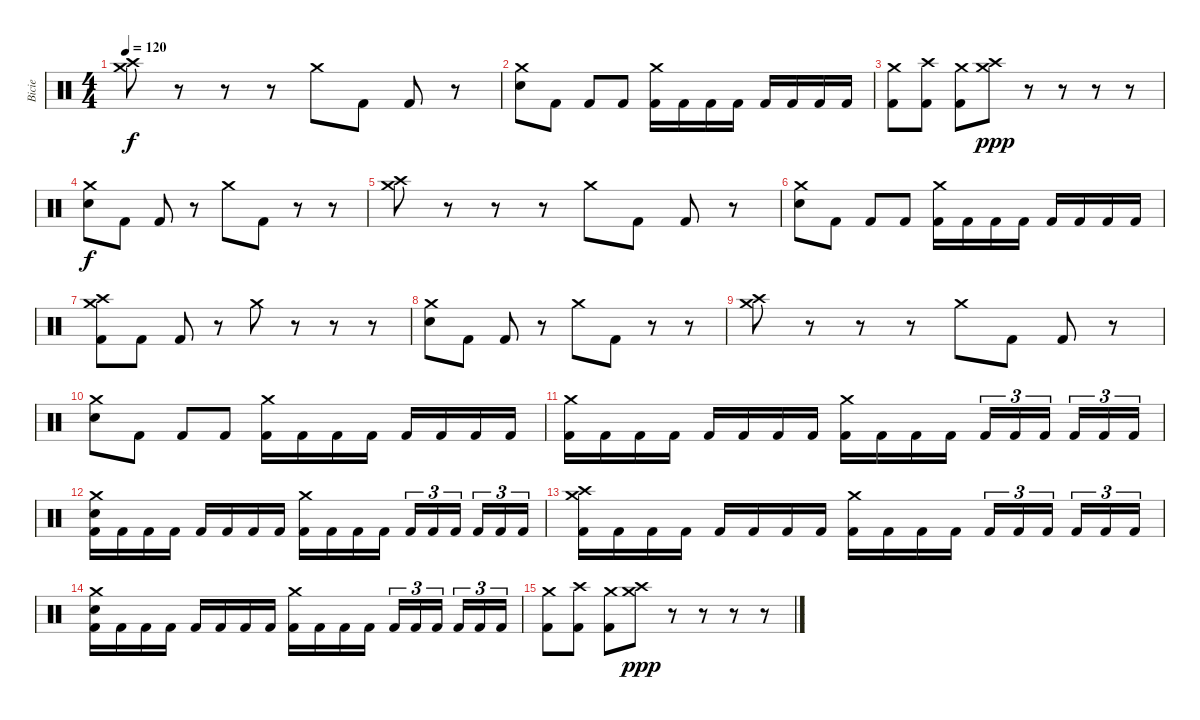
\track ("Bicie" "Bicie") {instrument percussion}
\staff {score}
\articulation defaults
\ts (4 4)
\tempo 120
\clef neutral
\ks c
("Crash medium (hit)" "Crash high (hit)").8{dy f} r.8 r.8 r.8 "Crash medium (hit)".8 "Kick (hit) 2".8 "Kick (hit) 2".8 r.8 |
("Crash medium (hit)" "Snare (hit) 2").8 "Kick (hit) 2".8 "Kick (hit) 2".8 "Kick (hit) 2".8 ("Crash medium (hit)" "Kick (hit) 2").16 "Kick (hit) 2".16 "Kick (hit) 2".16 "Kick (hit) 2".16 "Kick (hit) 2".16 "Kick (hit) 2".16 "Kick (hit) 2".16 "Kick (hit) 2".16 |
("Crash medium (hit)" "Kick (hit) 2").8 ("Crash high (hit)" "Kick (hit) 2").8 ("Crash medium (hit)" "Kick (hit) 2").8 ("Crash medium (hit)" "Crash high (hit)").8{dy ppp} r.8 r.8 r.8 r.8 |
("Crash medium (hit)" "Snare (hit) 2").8{dy f} "Kick (hit) 2".8 "Kick (hit) 2".8 r.8 "Crash medium (hit)".8 "Kick (hit) 2".8 r.8 r.8 |
("Crash medium (hit)" "Crash high (hit)").8 r.8 r.8 r.8 "Crash medium (hit)".8 "Kick (hit) 2".8 "Kick (hit) 2".8 r.8 |
("Crash medium (hit)" "Snare (hit) 2").8 "Kick (hit) 2".8 "Kick (hit) 2".8 "Kick (hit) 2".8 ("Crash medium (hit)" "Kick (hit) 2").16 "Kick (hit) 2".16 "Kick (hit) 2".16 "Kick (hit) 2".16 "Kick (hit) 2".16 "Kick (hit) 2".16 "Kick (hit) 2".16 "Kick (hit) 2".16 |
("Crash high (hit)" "Crash medium (hit)" "Kick (hit) 2").8 "Kick (hit) 2".8 "Kick (hit) 2".8 r.8 "Crash medium (hit)".8 r.8 r.8 r.8 |
("Crash medium (hit)" "Snare (hit) 2").8 "Kick (hit) 2".8 "Kick (hit) 2".8 r.8 "Crash medium (hit)".8 "Kick (hit) 2".8 r.8 r.8 |
("Crash medium (hit)" "Crash high (hit)").8 r.8 r.8 r.8 "Crash medium (hit)".8 "Kick (hit) 2".8 "Kick (hit) 2".8 r.8 |
("Crash medium (hit)" "Snare (hit) 2").8 "Kick (hit) 2".8 "Kick (hit) 2".8 "Kick (hit) 2".8 ("Crash medium (hit)" "Kick (hit) 2").16 "Kick (hit) 2".16 "Kick (hit) 2".16 "Kick (hit) 2".16 "Kick (hit) 2".16 "Kick (hit) 2".16 "Kick (hit) 2".16 "Kick (hit) 2".16 |
("Crash medium (hit)" "Kick (hit) 2").16 "Kick (hit) 2".16 "Kick (hit) 2".16 "Kick (hit) 2".16 "Kick (hit) 2".16 "Kick (hit) 2".16 "Kick (hit) 2".16 "Kick (hit) 2".16 ("Crash medium (hit)" "Kick (hit) 2").16 "Kick (hit) 2".16 "Kick (hit) 2".16 "Kick (hit) 2".16 "Kick (hit) 2".16{tu (3 2)} "Kick (hit) 2".16{tu (3 2)} "Kick (hit) 2".16{tu (3 2) beam splitsecondary} "Kick (hit) 2".16{tu (3 2)} "Kick (hit) 2".16{tu (3 2)} "Kick (hit) 2".16{tu (3 2)} |
("Crash medium (hit)" "Snare (hit) 2" "Kick (hit) 2").16 "Kick (hit) 2".16 "Kick (hit) 2".16 "Kick (hit) 2".16 "Kick (hit) 2".16 "Kick (hit) 2".16 "Kick (hit) 2".16 "Kick (hit) 2".16 ("Crash medium (hit)" "Kick (hit) 2").16 "Kick (hit) 2".16 "Kick (hit) 2".16 "Kick (hit) 2".16 "Kick (hit) 2".16{tu (3 2)} "Kick (hit) 2".16{tu (3 2)} "Kick (hit) 2".16{tu (3 2) beam splitsecondary} "Kick (hit) 2".16{tu (3 2)} "Kick (hit) 2".16{tu (3 2)} "Kick (hit) 2".16{tu (3 2)} |
("Crash medium (hit)" "Crash high (hit)" "Kick (hit) 2").16 "Kick (hit) 2".16 "Kick (hit) 2".16 "Kick (hit) 2".16 "Kick (hit) 2".16 "Kick (hit) 2".16 "Kick (hit) 2".16 "Kick (hit) 2".16 ("Crash medium (hit)" "Kick (hit) 2").16 "Kick (hit) 2".16 "Kick (hit) 2".16 "Kick (hit) 2".16 "Kick (hit) 2".16{tu (3 2)} "Kick (hit) 2".16{tu (3 2)} "Kick (hit) 2".16{tu (3 2) beam splitsecondary} "Kick (hit) 2".16{tu (3 2)} "Kick (hit) 2".16{tu (3 2)} "Kick (hit) 2".16{tu (3 2)} |
("Crash medium (hit)" "Snare (hit) 2" "Kick (hit) 2").16 "Kick (hit) 2".16 "Kick (hit) 2".16 "Kick (hit) 2".16 "Kick (hit) 2".16 "Kick (hit) 2".16 "Kick (hit) 2".16 "Kick (hit) 2".16 ("Crash medium (hit)" "Kick (hit) 2").16 "Kick (hit) 2".16 "Kick (hit) 2".16 "Kick (hit) 2".16 "Kick (hit) 2".16{tu (3 2)} "Kick (hit) 2".16{tu (3 2)} "Kick (hit) 2".16{tu (3 2) beam splitsecondary} "Kick (hit) 2".16{tu (3 2)} "Kick (hit) 2".16{tu (3 2)} "Kick (hit) 2".16{tu (3 2)} |
("Crash medium (hit)" "Kick (hit) 2").8 ("Crash high (hit)" "Kick (hit) 2").8 ("Crash medium (hit)" "Kick (hit) 2").8 ("Crash medium (hit)" "Crash high (hit)").8{dy ppp} r.8 r.8 r.8 r.8
